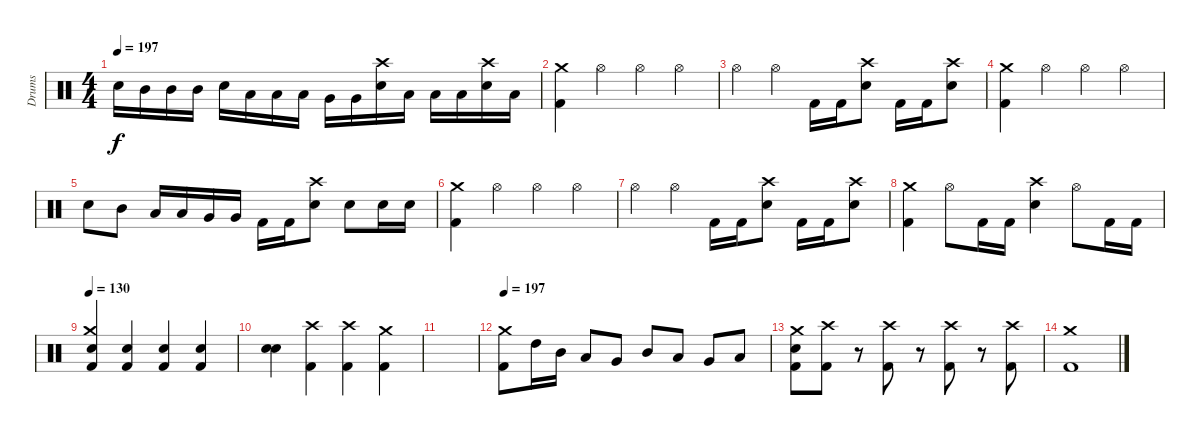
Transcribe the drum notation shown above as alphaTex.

\track ("Drums" "Drums") {instrument percussion}
\staff {score}
\articulation defaults
\ts (4 4)
\tempo 197
\clef neutral
\ks c "Snare (hit) 2".16{dy f} "Mid Tom (hit)".16 "Mid Tom (hit)".16 "Mid Tom (hit)".16 "Snare (hit) 2".16 "Low Tom (hit)".16 "Low Tom (hit)".16 "Low Tom (hit)".16 "Very Low Tom (hit)".16 "Very Low Tom (hit)".16
("Crash high (hit)" "Snare (hit) 2").16 "Low Floor Tom (hit)".16 "Low Floor Tom (hit)".16 "Low Floor Tom (hit)".16 ("Crash high (hit)" "Snare (hit) 2").16 "Low Floor Tom (hit)".16 |
("Crash medium (hit)" "Kick (hit) 2").4 "Hi-Hat (open)".4 "Hi-Hat (open)".4 "Hi-Hat (open)".4 |
"Hi-Hat (open)".4 "Hi-Hat (open)".4 "Kick (hit) 2".16 "Kick (hit) 2".16 ("Crash high (hit)" "Snare (hit) 2").8 "Kick (hit) 2".16 "Kick (hit) 2".16 ("Crash high (hit)" "Snare (hit) 2").8 |
("Crash medium (hit)" "Kick (hit) 2").4 "Hi-Hat (open)".4 "Hi-Hat (open)".4 "Hi-Hat (open)".4 |
"Snare (hit) 2".8 "Mid Tom (hit)".8 "Low Tom (hit)".16 "Low Tom (hit)".16 "Very Low Tom (hit)".16 "Very Low Tom (hit)".16 "Kick (hit) 2".16 "Kick (hit) 2".16 ("Crash high (hit)" "Snare (hit) 2").8 "Snare (hit) 2".8 "Snare (hit) 2".16 "Snare (hit) 2".16 |
("Crash medium (hit)" "Kick (hit) 2").4 "Hi-Hat (open)".4 "Hi-Hat (open)".4 "Hi-Hat (open)".4 |
"Hi-Hat (open)".4 "Hi-Hat (open)".4 "Kick (hit) 2".16 "Kick (hit) 2".16 ("Crash high (hit)" "Snare (hit) 2").8 "Kick (hit) 2".16 "Kick (hit) 2".16 ("Crash high (hit)" "Snare (hit) 2").8 |
("Crash medium (hit)" "Kick (hit) 2").4 "Hi-Hat (open)".8 "Kick (hit) 2".16 "Kick (hit) 2".16 ("Crash high (hit)" "Snare (hit) 2").4 "Hi-Hat (open)".8 "Kick (hit) 2".16 "Kick (hit) 2".16 |
\tempo 130
("Crash medium (hit)" "Snare (hit) 2" "Kick (hit) 2").4 ("Snare (hit) 2" "Kick (hit) 2").4 ("Snare (hit) 2" "Kick (hit) 2").4 ("Snare (hit) 2" "Kick (hit) 2").4 |
("Snare (hit) 2" "Snare (hit) 2").4{bu 240} ("Crash high (hit)" "Kick (hit) 2").4 ("Crash high (hit)" "Kick (hit) 2").4 ("Crash medium (hit)" "Kick (hit) 2").4 |
|
\tempo 197
("Crash medium (hit)" "Kick (hit) 2").8 "High Tom (hit)".16 "Mid Tom (hit)".16 "Low Tom (hit)".8 "Very Low Tom (hit)".8 "Mid Tom (hit)".8 "Low Tom (hit)".8 "Very Low Tom (hit)".8 "Low Floor Tom (hit)".8 |
("Crash medium (hit)" "Snare (hit) 2" "Kick (hit) 2").8 ("Crash high (hit)" "Kick (hit) 2").8 r.8 ("Crash high (hit)" "Kick (hit) 2").8 r.8 ("Crash high (hit)" "Kick (hit) 2").8 r.8 ("Crash high (hit)" "Kick (hit) 2").8 |
("Crash medium (hit)" "Kick (hit) 2").1
